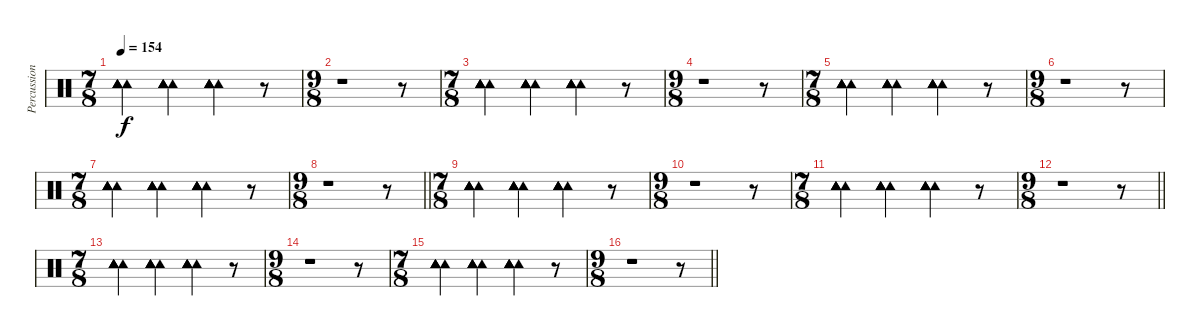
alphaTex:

\track ("Percussions" "Percussion") {instrument percussion}
\staff {score}
\articulation defaults
\ts (7 8)
\tempo 154
\clef neutral
\ks c
("Tambourine (hit)" "Tambourine (hit)" "Tambourine (hit)" "Tambourine (hit)" "Tambourine (hit)").4{dy f} ("Tambourine (hit)" "Tambourine (hit)" "Tambourine (hit)" "Tambourine (hit)" "Tambourine (hit)").4 ("Tambourine (hit)" "Tambourine (hit)" "Tambourine (hit)" "Tambourine (hit)" "Tambourine (hit)").4 r.8 |
\ts (9 8)
r.1 r.8 |
\ts (7 8)
("Tambourine (hit)" "Tambourine (hit)" "Tambourine (hit)" "Tambourine (hit)" "Tambourine (hit)").4 ("Tambourine (hit)" "Tambourine (hit)" "Tambourine (hit)" "Tambourine (hit)" "Tambourine (hit)").4 ("Tambourine (hit)" "Tambourine (hit)" "Tambourine (hit)" "Tambourine (hit)" "Tambourine (hit)").4 r.8 |
\ts (9 8)
r.1 r.8 |
\ts (7 8)
("Tambourine (hit)" "Tambourine (hit)" "Tambourine (hit)" "Tambourine (hit)" "Tambourine (hit)").4 ("Tambourine (hit)" "Tambourine (hit)" "Tambourine (hit)" "Tambourine (hit)" "Tambourine (hit)").4 ("Tambourine (hit)" "Tambourine (hit)" "Tambourine (hit)" "Tambourine (hit)" "Tambourine (hit)").4 r.8 |
\ts (9 8)
r.1 r.8 |
\ts (7 8)
("Tambourine (hit)" "Tambourine (hit)" "Tambourine (hit)" "Tambourine (hit)" "Tambourine (hit)").4 ("Tambourine (hit)" "Tambourine (hit)" "Tambourine (hit)" "Tambourine (hit)" "Tambourine (hit)").4 ("Tambourine (hit)" "Tambourine (hit)" "Tambourine (hit)" "Tambourine (hit)" "Tambourine (hit)").4 r.8 |
\ts (9 8)
\barLineRight lightlight
r.1 r.8 |
\ts (7 8)
("Tambourine (hit)" "Tambourine (hit)" "Tambourine (hit)" "Tambourine (hit)" "Tambourine (hit)").4 ("Tambourine (hit)" "Tambourine (hit)" "Tambourine (hit)" "Tambourine (hit)" "Tambourine (hit)").4 ("Tambourine (hit)" "Tambourine (hit)" "Tambourine (hit)" "Tambourine (hit)" "Tambourine (hit)").4 r.8 |
\ts (9 8)
r.1 r.8 |
\ts (7 8)
("Tambourine (hit)" "Tambourine (hit)" "Tambourine (hit)" "Tambourine (hit)" "Tambourine (hit)").4 ("Tambourine (hit)" "Tambourine (hit)" "Tambourine (hit)" "Tambourine (hit)" "Tambourine (hit)").4 ("Tambourine (hit)" "Tambourine (hit)" "Tambourine (hit)" "Tambourine (hit)" "Tambourine (hit)").4 r.8 |
\ts (9 8)
\barLineRight lightlight
r.1 r.8 |
\ts (7 8)
("Tambourine (hit)" "Tambourine (hit)" "Tambourine (hit)" "Tambourine (hit)" "Tambourine (hit)").4 ("Tambourine (hit)" "Tambourine (hit)" "Tambourine (hit)" "Tambourine (hit)" "Tambourine (hit)").4 ("Tambourine (hit)" "Tambourine (hit)" "Tambourine (hit)" "Tambourine (hit)" "Tambourine (hit)").4 r.8 |
\ts (9 8)
r.1 r.8 |
\ts (7 8)
("Tambourine (hit)" "Tambourine (hit)" "Tambourine (hit)" "Tambourine (hit)" "Tambourine (hit)").4 ("Tambourine (hit)" "Tambourine (hit)" "Tambourine (hit)" "Tambourine (hit)" "Tambourine (hit)").4 ("Tambourine (hit)" "Tambourine (hit)" "Tambourine (hit)" "Tambourine (hit)" "Tambourine (hit)").4 r.8 |
\ts (9 8)
\barLineRight lightlight
r.1 r.8
